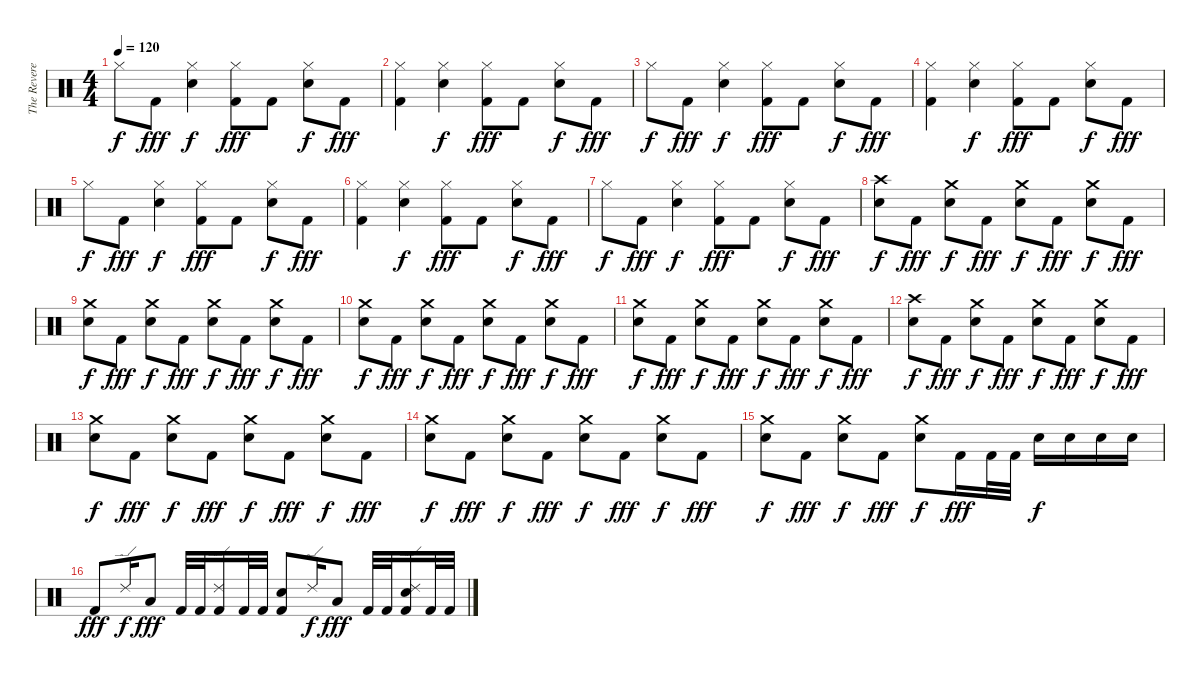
\track ("The Reverend" "The Revere") {instrument percussion}
\staff {score}
\articulation defaults
\ts (4 4)
\tempo 120
\clef neutral
\ks c "Hi-Hat (closed)".8{dy f} "Kick (hit) 2".8{dy fff}
("Hi-Hat (closed)" "Electric Snare (hit)").4{dy f} ("Hi-Hat (closed)" "Kick (hit) 2").8{dy fff} "Kick (hit) 2".8 ("Hi-Hat (closed)" "Electric Snare (hit)").8{dy f} "Kick (hit) 2".8{dy fff} |
("Hi-Hat (closed)" "Kick (hit) 2").4 ("Hi-Hat (closed)" "Electric Snare (hit)").4{dy f} ("Hi-Hat (closed)" "Kick (hit) 2").8{dy fff} "Kick (hit) 2".8 ("Hi-Hat (closed)" "Electric Snare (hit)").8{dy f} "Kick (hit) 2".8{dy fff} |
"Hi-Hat (closed)".8{dy f} "Kick (hit) 2".8{dy fff} ("Hi-Hat (closed)" "Electric Snare (hit)").4{dy f} ("Hi-Hat (closed)" "Kick (hit) 2").8{dy fff} "Kick (hit) 2".8 ("Hi-Hat (closed)" "Electric Snare (hit)").8{dy f} "Kick (hit) 2".8{dy fff} |
("Hi-Hat (closed)" "Kick (hit) 2").4 ("Hi-Hat (closed)" "Electric Snare (hit)").4{dy f} ("Hi-Hat (closed)" "Kick (hit) 2").8{dy fff} "Kick (hit) 2".8 ("Hi-Hat (closed)" "Electric Snare (hit)").8{dy f} "Kick (hit) 2".8{dy fff} |
"Hi-Hat (closed)".8{dy f} "Kick (hit) 2".8{dy fff} ("Hi-Hat (closed)" "Electric Snare (hit)").4{dy f} ("Hi-Hat (closed)" "Kick (hit) 2").8{dy fff} "Kick (hit) 2".8 ("Hi-Hat (closed)" "Electric Snare (hit)").8{dy f} "Kick (hit) 2".8{dy fff} |
("Hi-Hat (closed)" "Kick (hit) 2").4 ("Hi-Hat (closed)" "Electric Snare (hit)").4{dy f} ("Hi-Hat (closed)" "Kick (hit) 2").8{dy fff} "Kick (hit) 2".8 ("Hi-Hat (closed)" "Electric Snare (hit)").8{dy f} "Kick (hit) 2".8{dy fff} |
"Hi-Hat (closed)".8{dy f} "Kick (hit) 2".8{dy fff} ("Hi-Hat (closed)" "Electric Snare (hit)").4{dy f} ("Hi-Hat (closed)" "Kick (hit) 2").8{dy fff} "Kick (hit) 2".8 ("Hi-Hat (closed)" "Electric Snare (hit)").8{dy f} "Kick (hit) 2".8{dy fff} |
("Crash high (hit)" "Electric Snare (hit)").8{dy f} "Kick (hit) 2".8{dy fff} ("Crash medium (hit)" "Electric Snare (hit)").8{dy f} "Kick (hit) 2".8{dy fff} ("Crash medium (hit)" "Electric Snare (hit)").8{dy f} "Kick (hit) 2".8{dy fff} ("Crash medium (hit)" "Electric Snare (hit)").8{dy f} "Kick (hit) 2".8{dy fff} |
("Crash medium (hit)" "Electric Snare (hit)").8{dy f} "Kick (hit) 2".8{dy fff} ("Crash medium (hit)" "Electric Snare (hit)").8{dy f} "Kick (hit) 2".8{dy fff} ("Crash medium (hit)" "Electric Snare (hit)").8{dy f} "Kick (hit) 2".8{dy fff} ("Crash medium (hit)" "Electric Snare (hit)").8{dy f} "Kick (hit) 2".8{dy fff} |
("Crash medium (hit)" "Electric Snare (hit)").8{dy f} "Kick (hit) 2".8{dy fff} ("Crash medium (hit)" "Electric Snare (hit)").8{dy f} "Kick (hit) 2".8{dy fff} ("Crash medium (hit)" "Electric Snare (hit)").8{dy f} "Kick (hit) 2".8{dy fff} ("Crash medium (hit)" "Electric Snare (hit)").8{dy f} "Kick (hit) 2".8{dy fff} |
("Crash medium (hit)" "Electric Snare (hit)").8{dy f} "Kick (hit) 2".8{dy fff} ("Crash medium (hit)" "Electric Snare (hit)").8{dy f} "Kick (hit) 2".8{dy fff} ("Crash medium (hit)" "Electric Snare (hit)").8{dy f} "Kick (hit) 2".8{dy fff} ("Crash medium (hit)" "Electric Snare (hit)").8{dy f} "Kick (hit) 2".8{dy fff} |
("Crash high (hit)" "Electric Snare (hit)").8{dy f} "Kick (hit) 2".8{dy fff} ("Crash medium (hit)" "Electric Snare (hit)").8{dy f} "Kick (hit) 2".8{dy fff} ("Crash medium (hit)" "Electric Snare (hit)").8{dy f} "Kick (hit) 2".8{dy fff} ("Crash medium (hit)" "Electric Snare (hit)").8{dy f} "Kick (hit) 2".8{dy fff} |
("Crash medium (hit)" "Electric Snare (hit)").8{dy f} "Kick (hit) 2".8{dy fff} ("Crash medium (hit)" "Electric Snare (hit)").8{dy f} "Kick (hit) 2".8{dy fff} ("Crash medium (hit)" "Electric Snare (hit)").8{dy f} "Kick (hit) 2".8{dy fff} ("Crash medium (hit)" "Electric Snare (hit)").8{dy f} "Kick (hit) 2".8{dy fff} |
("Crash medium (hit)" "Electric Snare (hit)").8{dy f} "Kick (hit) 2".8{dy fff} ("Crash medium (hit)" "Electric Snare (hit)").8{dy f} "Kick (hit) 2".8{dy fff} ("Crash medium (hit)" "Electric Snare (hit)").8{dy f} "Kick (hit) 2".8{dy fff} ("Crash medium (hit)" "Electric Snare (hit)").8{dy f} "Kick (hit) 2".8{dy fff} |
("Crash medium (hit)" "Electric Snare (hit)").8{dy f} "Kick (hit) 2".8{dy fff} ("Crash medium (hit)" "Electric Snare (hit)").8{dy f} "Kick (hit) 2".8{dy fff} ("Crash medium (hit)" "Electric Snare (hit)").8{dy f} "Kick (hit) 2".16{dy fff} "Kick (hit) 2".32 "Kick (hit) 2".32 "Electric Snare (hit)".16{dy f} "Electric Snare (hit)".16 "Electric Snare (hit)".16 "Electric Snare (hit)".16 |
"Kick (hit) 2".8{dy fff} "Ride (edge) 2".16{dy f} "Low Tom (hit)".8{dy fff} "Kick (hit) 2".32 "Kick (hit) 2".32 ("Ride (edge) 2" "Kick (hit) 2").16 "Kick (hit) 2".32 "Kick (hit) 2".32 ("Electric Snare (hit)" "Kick (hit) 2").8 "Ride (edge) 2".16{dy f} "Low Tom (hit)".8{dy fff} "Kick (hit) 2".32 "Kick (hit) 2".32 ("Ride (edge) 2" "Electric Snare (hit)" "Kick (hit) 2").16 "Kick (hit) 2".32 "Kick (hit) 2".32
